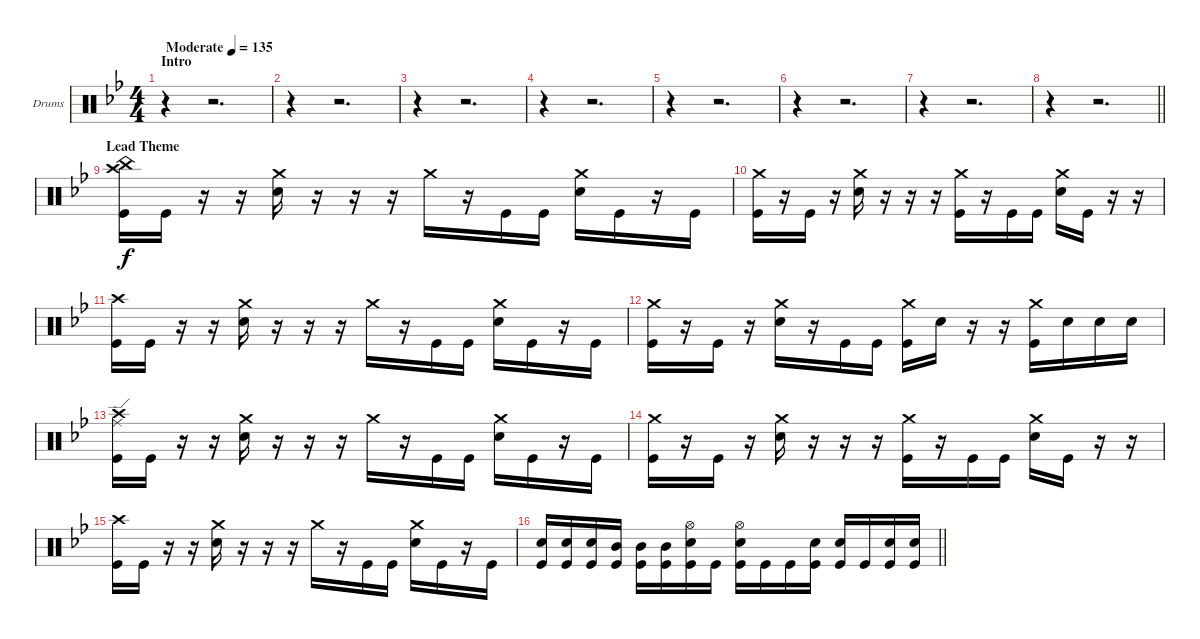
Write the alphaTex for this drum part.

\bracketExtendMode groupsimilarinstruments
\firstSystemTrackNameOrientation horizontal
\otherSystemsTrackNameOrientation horizontal
\track ("Drumkit" "Drums") {instrument percussion}
\staff {score}
\articulation defaults
\ts (4 4)
\beaming (8 2 2 2 2)
\section ("" "Intro")
\tempo (135 "Moderate")
\clef neutral
\ks gminor
r.4{dy f} r.2{d} |
r.4 r.2{d} |
r.4 r.2{d} |
r.4 r.2{d} |
r.4 r.2{d} |
r.4 r.2{d} |
r.4 r.2{d} |
\barLineRight lightlight
r.4 r.2{d} |
\section ("" "Lead Theme")
("Crash high (hit)" "China (hit)" "Kick (hit)").16 "Kick (hit)".16 r.16 r.16 ("Crash medium (hit)" "Snare (hit) 2").16 r.16 r.16 r.16 "Crash medium (hit)".16 r.16 "Kick (hit)".16 "Kick (hit)".16 ("Crash medium (hit)" "Snare (hit) 2").16 "Kick (hit)".16 r.16 "Kick (hit)".16 |
("Crash medium (hit)" "Kick (hit)").16 r.16 "Kick (hit)".16 r.16 ("Crash medium (hit)" "Snare (hit) 2").16 r.16 r.16 r.16 ("Crash medium (hit)" "Kick (hit)").16 r.16 "Kick (hit)".16 "Kick (hit)".16 ("Crash medium (hit)" "Snare (hit) 2").16 "Kick (hit)".16 r.16 r.16 |
("Crash high (hit)" "Kick (hit)").16 "Kick (hit)".16 r.16 r.16 ("Crash medium (hit)" "Snare (hit) 2").16 r.16 r.16 r.16 "Crash medium (hit)".16 r.16 "Kick (hit)".16 "Kick (hit)".16 ("Crash medium (hit)" "Snare (hit) 2").16 "Kick (hit)".16 r.16 "Kick (hit)".16 |
("Crash medium (hit)" "Kick (hit)").16 r.16 "Kick (hit)".16 r.16 ("Crash medium (hit)" "Snare (hit) 2").16 r.16 "Kick (hit)".16 "Kick (hit)".16 ("Crash medium (hit)" "Kick (hit)").16 "Snare (hit) 2".16 r.16 r.16 ("Crash medium (hit)" "Kick (hit)").16 "Snare (hit) 2".16 "Snare (hit) 2".16 "Snare (hit) 2".16 |
("Crash high (hit)" "Ride (edge)" "Kick (hit)").16 "Kick (hit)".16 r.16 r.16 ("Crash medium (hit)" "Snare (hit) 2").16 r.16 r.16 r.16 "Crash medium (hit)".16 r.16 "Kick (hit)".16 "Kick (hit)".16 ("Crash medium (hit)" "Snare (hit) 2").16 "Kick (hit)".16 r.16 "Kick (hit)".16 |
("Crash medium (hit)" "Kick (hit)").16 r.16 "Kick (hit)".16 r.16 ("Crash medium (hit)" "Snare (hit) 2").16 r.16 r.16 r.16 ("Crash medium (hit)" "Kick (hit)").16 r.16 "Kick (hit)".16 "Kick (hit)".16 ("Crash medium (hit)" "Snare (hit) 2").16 "Kick (hit)".16 r.16 r.16 |
("Crash high (hit)" "Kick (hit)").16 "Kick (hit)".16 r.16 r.16 ("Crash medium (hit)" "Snare (hit) 2").16 r.16 r.16 r.16 "Crash medium (hit)".16 r.16 "Kick (hit)".16 "Kick (hit)".16 ("Crash medium (hit)" "Snare (hit) 2").16 "Kick (hit)".16 r.16 "Kick (hit)".16 |
\barLineRight lightlight
("Snare (hit) 2" "Kick (hit)").16 ("Snare (hit) 2" "Kick (hit)").16 ("Snare (hit) 2" "Kick (hit)").16 ("Mid Tom (hit)" "Kick (hit)").16 ("Mid Tom (hit)" "Kick (hit)").16 ("Mid Tom (hit)" "Kick (hit)").16 ("Hi-Hat (open)" "Snare (hit) 2" "Kick (hit)").16 "Kick (hit)".16 ("Hi-Hat (open)" "Snare (hit) 2" "Kick (hit)").16 "Kick (hit)".16 "Kick (hit)".16 ("Snare (hit) 2" "Kick (hit)").16 ("Snare (hit) 2" "Kick (hit)").16 "Kick (hit)".16 ("Snare (hit) 2" "Kick (hit)").16 ("Snare (hit) 2" "Kick (hit)").16
